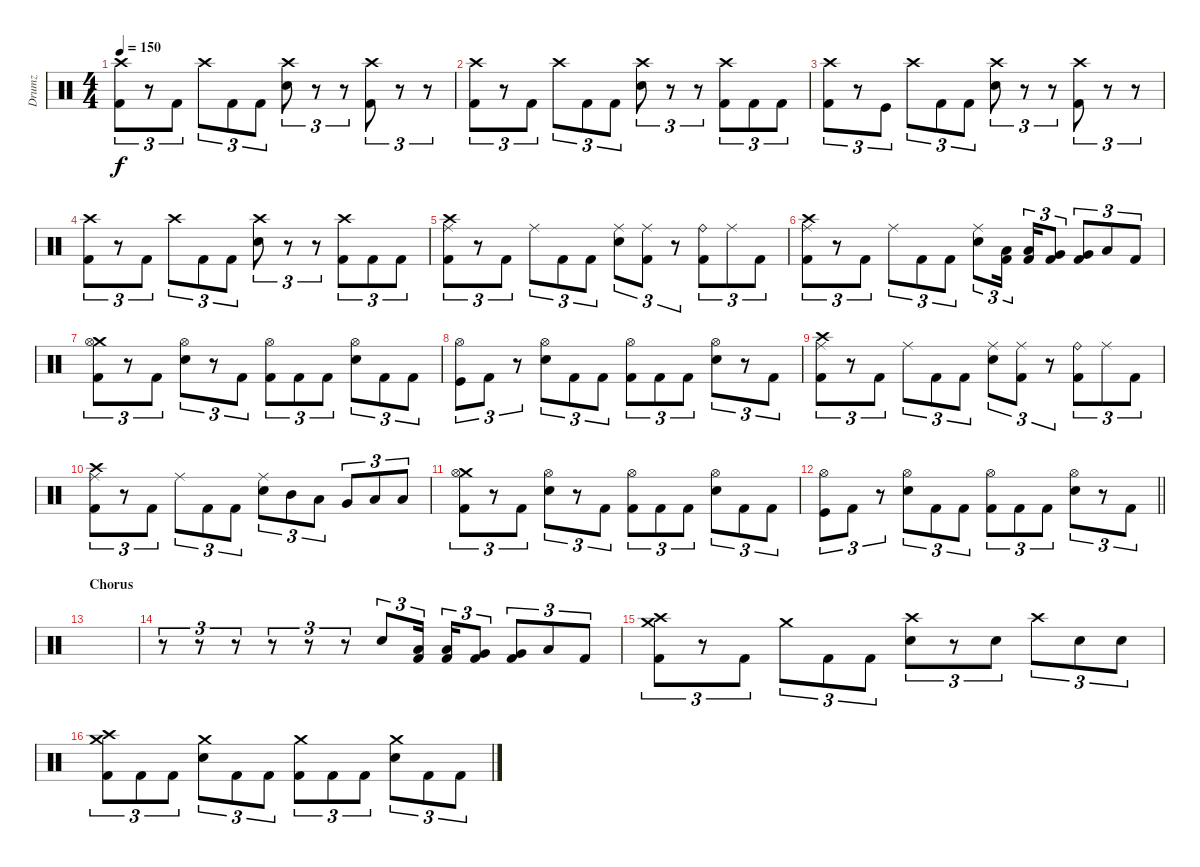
\track ("Drumz" "Drumz") {instrument percussion}
\staff {score}
\articulation defaults
\ts (4 4)
\tempo 150
\clef neutral
\ks c
("Crash high (hit)" "Kick (hit) 2").8{tu (3 2) dy f} r.8{tu (3 2)} "Kick (hit) 2".8{tu (3 2)} "Crash high (hit)".8{tu (3 2)} "Kick (hit) 2".8{tu (3 2)} "Kick (hit) 2".8{tu (3 2)} ("Crash high (hit)" "Snare (hit) 2").8{tu (3 2)} r.8{tu (3 2)} r.8{tu (3 2)} ("Crash high (hit)" "Kick (hit) 2").8{tu (3 2)} r.8{tu (3 2)} r.8{tu (3 2)} |
("Crash high (hit)" "Kick (hit) 2").8{tu (3 2)} r.8{tu (3 2)} "Kick (hit) 2".8{tu (3 2)} "Crash high (hit)".8{tu (3 2)} "Kick (hit) 2".8{tu (3 2)} "Kick (hit) 2".8{tu (3 2)} ("Crash high (hit)" "Snare (hit) 2").8{tu (3 2)} r.8{tu (3 2)} r.8{tu (3 2)} ("Kick (hit) 2" "Crash high (hit)").8{tu (3 2)} "Kick (hit) 2".8{tu (3 2)} "Kick (hit) 2".8{tu (3 2)} |
("Crash high (hit)" "Kick (hit) 2").8{tu (3 2)} r.8{tu (3 2)} "Kick (hit)".8{tu (3 2)} "Crash high (hit)".8{tu (3 2)} "Kick (hit) 2".8{tu (3 2)} "Kick (hit) 2".8{tu (3 2)} ("Crash high (hit)" "Snare (hit) 2").8{tu (3 2)} r.8{tu (3 2)} r.8{tu (3 2)} ("Crash high (hit)" "Kick (hit) 2").8{tu (3 2)} r.8{tu (3 2)} r.8{tu (3 2)} |
("Crash high (hit)" "Kick (hit) 2").8{tu (3 2)} r.8{tu (3 2)} "Kick (hit) 2".8{tu (3 2)} "Crash high (hit)".8{tu (3 2)} "Kick (hit) 2".8{tu (3 2)} "Kick (hit) 2".8{tu (3 2)} ("Crash high (hit)" "Snare (hit) 2").8{tu (3 2)} r.8{tu (3 2)} r.8{tu (3 2)} ("Kick (hit) 2" "Crash high (hit)").8{tu (3 2)} "Kick (hit) 2".8{tu (3 2)} "Kick (hit) 2".8{tu (3 2)} |
("Kick (hit) 2" "Crash high (hit)" "Ride (middle)").8{tu (3 2)} r.8{tu (3 2)} "Kick (hit) 2".8{tu (3 2)} "Ride (middle)".8{tu (3 2)} "Kick (hit) 2".8{tu (3 2)} "Kick (hit) 2".8{tu (3 2)} ("Snare (hit) 2" "Ride (middle)").8{tu (3 2)} ("Kick (hit) 2" "Ride (middle)").8{tu (3 2)} r.8{tu (3 2)} ("Kick (hit) 2" "Ride (bell)").8{tu (3 2)} "Ride (middle)".8{tu (3 2)} "Kick (hit) 2".8{tu (3 2)} |
("Kick (hit) 2" "Crash high (hit)" "Ride (middle)").8{tu (3 2)} r.8{tu (3 2)} "Kick (hit) 2".8{tu (3 2)} "Ride (middle)".8{tu (3 2)} "Kick (hit) 2".8{tu (3 2)} "Kick (hit) 2".8{tu (3 2)} ("Snare (hit) 2" "Ride (middle)").8{tu (3 2)} ("Kick (hit) 2" "Low Tom (hit)").16{tu (3 2) beam splitsecondary} ("Kick (hit) 2" "Low Tom (hit)").16{tu (3 2)} ("Kick (hit) 2" "Very Low Tom (hit)").8{tu (3 2)} ("Kick (hit) 2" "Very Low Tom (hit)").8{tu (3 2)} "Low Floor Tom (hit)".8{tu (3 2)} "Kick (hit) 2".8{tu (3 2)} |
("Crash medium (hit)" "Hi-Hat (open)" "Kick (hit) 2").8{tu (3 2)} r.8{tu (3 2)} "Kick (hit) 2".8{tu (3 2)} ("Hi-Hat (open)" "Snare (hit) 2").8{tu (3 2)} r.8{tu (3 2)} "Kick (hit) 2".8{tu (3 2)} ("Kick (hit) 2" "Hi-Hat (open)").8{tu (3 2)} "Kick (hit) 2".8{tu (3 2)} "Kick (hit) 2".8{tu (3 2)} ("Hi-Hat (open)" "Snare (hit) 2").8{tu (3 2)} "Kick (hit) 2".8{tu (3 2)} "Kick (hit) 2".8{tu (3 2)} |
("Kick (hit)" "Hi-Hat (open)").8{tu (3 2)} "Kick (hit) 2".8{tu (3 2)} r.8{tu (3 2)} ("Hi-Hat (open)" "Snare (hit) 2").8{tu (3 2)} "Kick (hit) 2".8{tu (3 2)} "Kick (hit) 2".8{tu (3 2)} ("Kick (hit) 2" "Hi-Hat (open)").8{tu (3 2)} "Kick (hit) 2".8{tu (3 2)} "Kick (hit) 2".8{tu (3 2)} ("Hi-Hat (open)" "Snare (hit) 2").8{tu (3 2)} r.8{tu (3 2)} "Kick (hit) 2".8{tu (3 2)} |
("Kick (hit) 2" "Crash high (hit)" "Ride (middle)").8{tu (3 2)} r.8{tu (3 2)} "Kick (hit) 2".8{tu (3 2)} "Ride (middle)".8{tu (3 2)} "Kick (hit) 2".8{tu (3 2)} "Kick (hit) 2".8{tu (3 2)} ("Snare (hit) 2" "Ride (middle)").8{tu (3 2)} ("Kick (hit) 2" "Ride (middle)").8{tu (3 2)} r.8{tu (3 2)} ("Kick (hit) 2" "Ride (bell)").8{tu (3 2)} "Ride (middle)".8{tu (3 2)} "Kick (hit) 2".8{tu (3 2)} |
("Kick (hit) 2" "Crash high (hit)" "Ride (middle)").8{tu (3 2)} r.8{tu (3 2)} "Kick (hit) 2".8{tu (3 2)} "Ride (middle)".8{tu (3 2)} "Kick (hit) 2".8{tu (3 2)} "Kick (hit) 2".8{tu (3 2)} ("Snare (hit) 2" "Ride (middle)").8{tu (3 2)} "Mid Tom (hit)".8{tu (3 2)} "Low Tom (hit)".8{tu (3 2)} "Very Low Tom (hit)".8{tu (3 2)} "Low Floor Tom (hit)".8{tu (3 2)} "Low Floor Tom (hit)".8{tu (3 2)} |
("Crash medium (hit)" "Hi-Hat (open)" "Kick (hit) 2").8{tu (3 2)} r.8{tu (3 2)} "Kick (hit) 2".8{tu (3 2)} ("Hi-Hat (open)" "Snare (hit) 2").8{tu (3 2)} r.8{tu (3 2)} "Kick (hit) 2".8{tu (3 2)} ("Kick (hit) 2" "Hi-Hat (open)").8{tu (3 2)} "Kick (hit) 2".8{tu (3 2)} "Kick (hit) 2".8{tu (3 2)} ("Hi-Hat (open)" "Snare (hit) 2").8{tu (3 2)} "Kick (hit) 2".8{tu (3 2)} "Kick (hit) 2".8{tu (3 2)} |
\barLineRight lightlight
("Kick (hit)" "Hi-Hat (open)").8{tu (3 2)} "Kick (hit) 2".8{tu (3 2)} r.8{tu (3 2)} ("Hi-Hat (open)" "Snare (hit) 2").8{tu (3 2)} "Kick (hit) 2".8{tu (3 2)} "Kick (hit) 2".8{tu (3 2)} ("Kick (hit) 2" "Hi-Hat (open)").8{tu (3 2)} "Kick (hit) 2".8{tu (3 2)} "Kick (hit) 2".8{tu (3 2)} ("Hi-Hat (open)" "Snare (hit) 2").8{tu (3 2)} r.8{tu (3 2)} "Kick (hit) 2".8{tu (3 2)} |
\section ("" "Chorus")
|
r.8{tu (3 2)} r.8{tu (3 2)} r.8{tu (3 2)} r.8{tu (3 2)} r.8{tu (3 2)} r.8{tu (3 2)} "Snare (hit) 2".8{tu (3 2)} ("Kick (hit) 2" "Low Tom (hit)").16{tu (3 2) beam splitsecondary} ("Kick (hit) 2" "Low Tom (hit)").16{tu (3 2)} ("Kick (hit) 2" "Very Low Tom (hit)").8{tu (3 2)} ("Kick (hit) 2" "Very Low Tom (hit)").8{tu (3 2)} "Low Floor Tom (hit)".8{tu (3 2)} "Kick (hit) 2".8{tu (3 2)} |
("Crash medium (hit)" "Crash high (hit)" "Kick (hit) 2").8{tu (3 2)} r.8{tu (3 2)} "Kick (hit) 2".8{tu (3 2)} "Crash medium (hit)".8{tu (3 2)} "Kick (hit) 2".8{tu (3 2)} "Kick (hit) 2".8{tu (3 2)} ("Crash high (hit)" "Snare (hit) 2").8{tu (3 2)} r.8{tu (3 2)} "Snare (hit) 2".8{tu (3 2)} "Crash high (hit)".8{tu (3 2)} "Snare (hit) 2".8{tu (3 2)} "Snare (hit) 2".8{tu (3 2)} |
("Crash medium (hit)" "Crash high (hit)" "Kick (hit) 2").8{tu (3 2)} "Kick (hit) 2".8{tu (3 2)} "Kick (hit) 2".8{tu (3 2)} ("Crash medium (hit)" "Snare (hit) 2").8{tu (3 2)} "Kick (hit) 2".8{tu (3 2)} "Kick (hit) 2".8{tu (3 2)} ("Kick (hit) 2" "Crash medium (hit)").8{tu (3 2)} "Kick (hit) 2".8{tu (3 2)} "Kick (hit) 2".8{tu (3 2)} ("Crash medium (hit)" "Snare (hit) 2").8{tu (3 2)} "Kick (hit) 2".8{tu (3 2)} "Kick (hit) 2".8{tu (3 2)}
